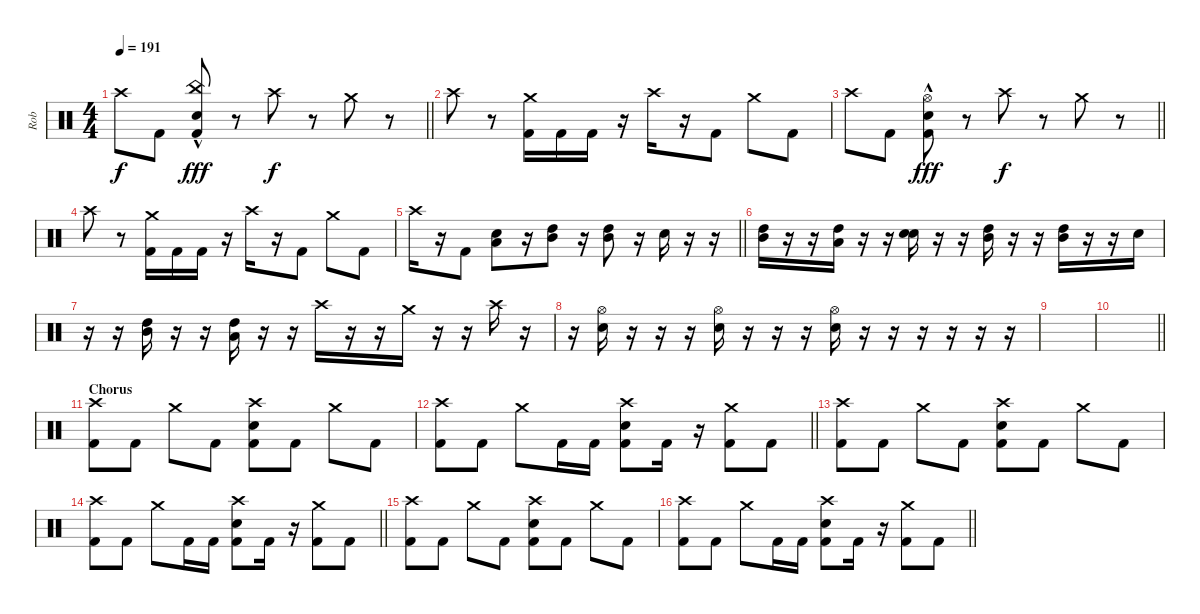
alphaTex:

\track ("Rob" "Rob") {instrument percussion}
\staff {score}
\articulation defaults
\ts (4 4)
\tempo 191
\clef neutral
\barLineRight lightlight
\ks c "Crash high (hit)".8{dy f} "Kick (hit) 2".8
("Kick (hit) 2" "China (hit)"{hac} "Snare (hit) 2").8{dy fff} r.8 "Crash high (hit)".8{dy f} r.8 "Crash medium (hit)".8 r.8 |
"Crash high (hit)".8 r.8 ("Kick (hit) 2" "Crash medium (hit)").16 "Kick (hit) 2".16 "Kick (hit) 2".16 r.16 "Crash high (hit)".16 r.16 "Kick (hit) 2".8 "Crash medium (hit)".8 "Kick (hit) 2".8 |
\barLineRight lightlight "Crash high (hit)".8 "Kick (hit) 2".8
("Kick (hit) 2" "Hi-Hat (open)"{hac} "Snare (hit) 2").8{dy fff} r.8 "Crash high (hit)".8{dy f} r.8 "Crash medium (hit)".8 r.8 |
"Crash high (hit)".8 r.8 ("Kick (hit) 2" "Crash medium (hit)").16 "Kick (hit) 2".16 "Kick (hit) 2".16 r.16 "Crash high (hit)".16 r.16 "Kick (hit) 2".8 "Crash medium (hit)".8 "Kick (hit) 2".8 |
\barLineRight lightlight "Crash high (hit)".16
r.16 "Kick (hit) 2".8 ("Snare (hit) 2" "Low Tom (hit)").8 r.16 ("Mid Tom (hit)" "High Tom (hit)").8 r.16 ("Mid Tom (hit)" "High Tom (hit)").8 r.16 "Snare (hit) 2".16 r.16 r.16 |
("Mid Tom (hit)" "High Tom (hit)").16 r.16 r.16 ("Low Tom (hit)" "High Tom (hit)").16 r.16 r.16 ("Snare (hit) 2" "Metronome (bell)").16 r.16 r.16 ("Mid Tom (hit)" "High Tom (hit)").16 r.16 r.16 ("Mid Tom (hit)" "High Tom (hit)").16 r.16 r.16 "Snare (hit) 2".16 |
r.16 r.16 ("Mid Tom (hit)" "High Tom (hit)").16 r.16 r.16 ("Low Tom (hit)" "High Tom (hit)").16 r.16 r.16 "Crash high (hit)".16 r.16 r.16 "Crash medium (hit)".16 r.16 r.16 "Crash high (hit)".16 r.16 |
r.16 ("Hi-Hat (open)" "Snare (hit) 2").16 r.16 r.16 r.16 ("Hi-Hat (open)" "Snare (hit) 2").16 r.16 r.16 r.16 ("Hi-Hat (open)" "Snare (hit) 2").16 r.16 r.16 r.16 r.16 r.16 r.16 |
|
\barLineRight lightlight
|
\section ("" "Chorus")
("Crash high (hit)" "Kick (hit) 2").8 "Kick (hit) 2".8 "Crash medium (hit)".8 "Kick (hit) 2".8 ("Snare (hit) 2" "Kick (hit) 2" "Crash high (hit)").8 "Kick (hit) 2".8 "Crash medium (hit)".8 "Kick (hit) 2".8 |
\barLineRight lightlight
("Crash high (hit)" "Kick (hit) 2").8 "Kick (hit) 2".8 "Crash medium (hit)".8 "Kick (hit) 2".16 "Kick (hit) 2".16 ("Crash high (hit)" "Kick (hit) 2" "Snare (hit) 2").8 "Kick (hit) 2".16 r.16 ("Crash medium (hit)" "Kick (hit) 2").8 "Kick (hit) 2".8 |
("Crash high (hit)" "Kick (hit) 2").8 "Kick (hit) 2".8 "Crash medium (hit)".8 "Kick (hit) 2".8 ("Snare (hit) 2" "Kick (hit) 2" "Crash high (hit)").8 "Kick (hit) 2".8 "Crash medium (hit)".8 "Kick (hit) 2".8 |
\barLineRight lightlight
("Crash high (hit)" "Kick (hit) 2").8 "Kick (hit) 2".8 "Crash medium (hit)".8 "Kick (hit) 2".16 "Kick (hit) 2".16 ("Crash high (hit)" "Kick (hit) 2" "Snare (hit) 2").8 "Kick (hit) 2".16 r.16 ("Crash medium (hit)" "Kick (hit) 2").8 "Kick (hit) 2".8 |
("Crash high (hit)" "Kick (hit) 2").8 "Kick (hit) 2".8 "Crash medium (hit)".8 "Kick (hit) 2".8 ("Snare (hit) 2" "Kick (hit) 2" "Crash high (hit)").8 "Kick (hit) 2".8 "Crash medium (hit)".8 "Kick (hit) 2".8 |
\barLineRight lightlight
("Crash high (hit)" "Kick (hit) 2").8 "Kick (hit) 2".8 "Crash medium (hit)".8 "Kick (hit) 2".16 "Kick (hit) 2".16 ("Crash high (hit)" "Kick (hit) 2" "Snare (hit) 2").8 "Kick (hit) 2".16 r.16 ("Crash medium (hit)" "Kick (hit) 2").8 "Kick (hit) 2".8
